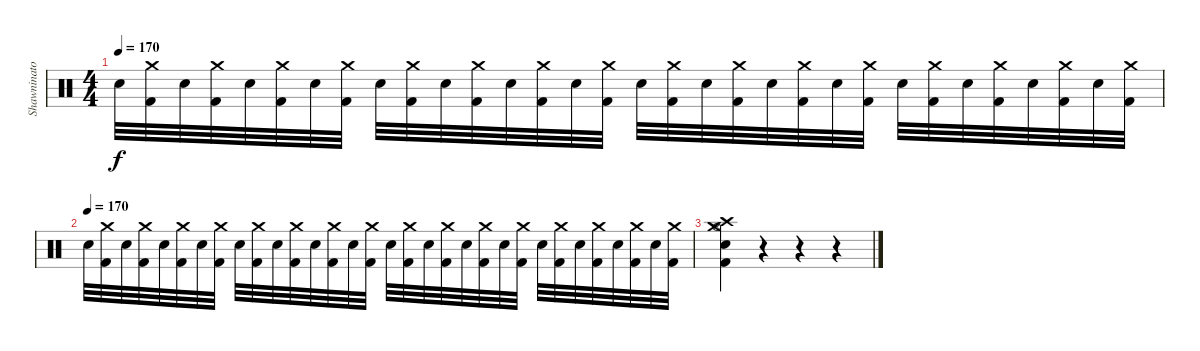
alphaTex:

\track ("Shawninator-Drums" "Shawninato") {instrument percussion}
\staff {score}
\articulation defaults
\ts (4 4)
\tempo 150
\tempo 170
\clef neutral
\ks c "Snare (hit) 2".32{dy f}
("Crash medium (hit)" "Kick (hit) 2").32 "Snare (hit) 2".32 ("Crash medium (hit)" "Kick (hit) 2").32 "Snare (hit) 2".32 ("Crash medium (hit)" "Kick (hit) 2").32 "Snare (hit) 2".32 ("Crash medium (hit)" "Kick (hit) 2").32 "Snare (hit) 2".32 ("Crash medium (hit)" "Kick (hit) 2").32 "Snare (hit) 2".32 ("Crash medium (hit)" "Kick (hit) 2").32 "Snare (hit) 2".32 ("Crash medium (hit)" "Kick (hit) 2").32 "Snare (hit) 2".32 ("Crash medium (hit)" "Kick (hit) 2").32 "Snare (hit) 2".32 ("Crash medium (hit)" "Kick (hit) 2").32 "Snare (hit) 2".32 ("Crash medium (hit)" "Kick (hit) 2").32 "Snare (hit) 2".32 ("Crash medium (hit)" "Kick (hit) 2").32 "Snare (hit) 2".32 ("Crash medium (hit)" "Kick (hit) 2").32 "Snare (hit) 2".32 ("Crash medium (hit)" "Kick (hit) 2").32 "Snare (hit) 2".32 ("Crash medium (hit)" "Kick (hit) 2").32 "Snare (hit) 2".32 ("Crash medium (hit)" "Kick (hit) 2").32 "Snare (hit) 2".32 ("Crash medium (hit)" "Kick (hit) 2").32 |
\tempo (170)
"Snare (hit) 2".32 ("Crash medium (hit)" "Kick (hit) 2").32 "Snare (hit) 2".32 ("Crash medium (hit)" "Kick (hit) 2").32 "Snare (hit) 2".32 ("Crash medium (hit)" "Kick (hit) 2").32 "Snare (hit) 2".32 ("Crash medium (hit)" "Kick (hit) 2").32 "Snare (hit) 2".32 ("Crash medium (hit)" "Kick (hit) 2").32 "Snare (hit) 2".32 ("Crash medium (hit)" "Kick (hit) 2").32 "Snare (hit) 2".32 ("Crash medium (hit)" "Kick (hit) 2").32 "Snare (hit) 2".32 ("Crash medium (hit)" "Kick (hit) 2").32 "Snare (hit) 2".32 ("Crash medium (hit)" "Kick (hit) 2").32 "Snare (hit) 2".32 ("Crash medium (hit)" "Kick (hit) 2").32 "Snare (hit) 2".32 ("Crash medium (hit)" "Kick (hit) 2").32 "Snare (hit) 2".32 ("Crash medium (hit)" "Kick (hit) 2").32 "Snare (hit) 2".32 ("Crash medium (hit)" "Kick (hit) 2").32 "Snare (hit) 2".32 ("Crash medium (hit)" "Kick (hit) 2").32 "Snare (hit) 2".32 ("Crash medium (hit)" "Kick (hit) 2").32 "Snare (hit) 2".32 ("Crash medium (hit)" "Kick (hit) 2").32 |
("Hi-Hat (open)" "Crash high (hit)" "Crash medium (hit)" "Kick (hit) 2" "Snare (hit) 2").4 r.4 r.4 r.4
